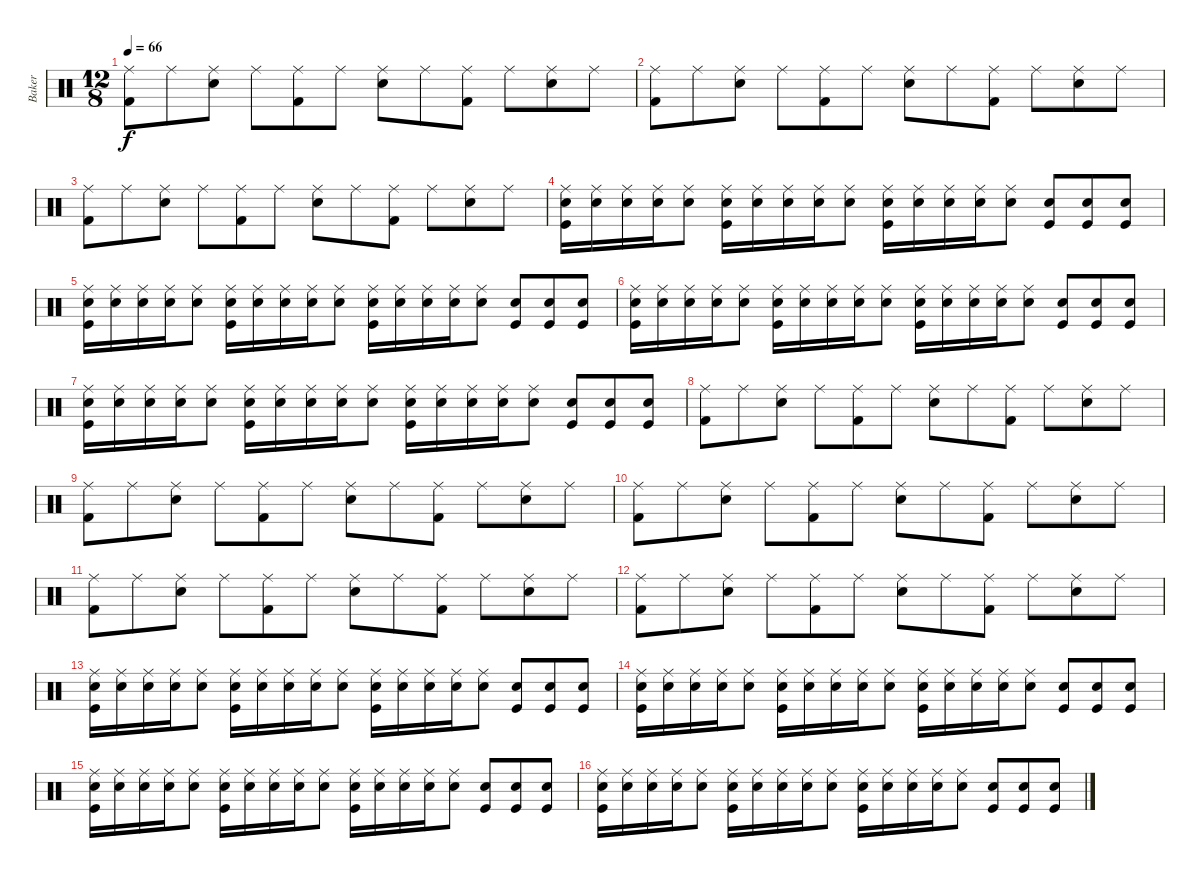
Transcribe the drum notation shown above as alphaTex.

\track ("Baker" "Baker") {instrument percussion}
\staff {score}
\articulation defaults
\ts (12 8)
\tempo 66
\clef neutral
\ks c
("Kick (hit) 2" "Ride (middle)").8{dy f} "Ride (middle)".8 ("Electric Snare (hit)" "Ride (middle)").8 "Ride (middle)".8 ("Kick (hit) 2" "Ride (middle)").8 "Ride (middle)".8 ("Electric Snare (hit)" "Ride (middle)").8 "Ride (middle)".8 ("Kick (hit) 2" "Ride (middle)").8 "Ride (middle)".8 ("Electric Snare (hit)" "Ride (middle)").8 "Ride (middle)".8 |
("Kick (hit) 2" "Ride (middle)").8 "Ride (middle)".8 ("Electric Snare (hit)" "Ride (middle)").8 "Ride (middle)".8 ("Kick (hit) 2" "Ride (middle)").8 "Ride (middle)".8 ("Electric Snare (hit)" "Ride (middle)").8 "Ride (middle)".8 ("Kick (hit) 2" "Ride (middle)").8 "Ride (middle)".8 ("Electric Snare (hit)" "Ride (middle)").8 "Ride (middle)".8 |
("Kick (hit) 2" "Ride (middle)").8 "Ride (middle)".8 ("Electric Snare (hit)" "Ride (middle)").8 "Ride (middle)".8 ("Kick (hit) 2" "Ride (middle)").8 "Ride (middle)".8 ("Electric Snare (hit)" "Ride (middle)").8 "Ride (middle)".8 ("Kick (hit) 2" "Ride (middle)").8 "Ride (middle)".8 ("Electric Snare (hit)" "Ride (middle)").8 "Ride (middle)".8 |
("Electric Snare (hit)" "Kick (hit)" "Ride (middle)").16 ("Electric Snare (hit)" "Ride (middle)").16 ("Electric Snare (hit)" "Ride (middle)").16 ("Electric Snare (hit)" "Ride (middle)").16 ("Electric Snare (hit)" "Ride (middle)").8 ("Electric Snare (hit)" "Kick (hit)" "Ride (middle)").16 ("Electric Snare (hit)" "Ride (middle)").16 ("Electric Snare (hit)" "Ride (middle)").16 ("Electric Snare (hit)" "Ride (middle)").16 ("Electric Snare (hit)" "Ride (middle)").8 ("Electric Snare (hit)" "Kick (hit)" "Ride (middle)").16 ("Electric Snare (hit)" "Ride (middle)").16 ("Electric Snare (hit)" "Ride (middle)").16 ("Electric Snare (hit)" "Ride (middle)").16 ("Electric Snare (hit)" "Ride (middle)").8 ("Electric Snare (hit)" "Kick (hit)").8 ("Electric Snare (hit)" "Kick (hit)").8 ("Electric Snare (hit)" "Kick (hit)").8 |
("Electric Snare (hit)" "Kick (hit)" "Ride (middle)").16 ("Electric Snare (hit)" "Ride (middle)").16 ("Electric Snare (hit)" "Ride (middle)").16 ("Electric Snare (hit)" "Ride (middle)").16 ("Electric Snare (hit)" "Ride (middle)").8 ("Electric Snare (hit)" "Kick (hit)" "Ride (middle)").16 ("Electric Snare (hit)" "Ride (middle)").16 ("Electric Snare (hit)" "Ride (middle)").16 ("Electric Snare (hit)" "Ride (middle)").16 ("Electric Snare (hit)" "Ride (middle)").8 ("Electric Snare (hit)" "Kick (hit)" "Ride (middle)").16 ("Electric Snare (hit)" "Ride (middle)").16 ("Electric Snare (hit)" "Ride (middle)").16 ("Electric Snare (hit)" "Ride (middle)").16 ("Electric Snare (hit)" "Ride (middle)").8 ("Electric Snare (hit)" "Kick (hit)").8 ("Electric Snare (hit)" "Kick (hit)").8 ("Electric Snare (hit)" "Kick (hit)").8 |
("Electric Snare (hit)" "Kick (hit)" "Ride (middle)").16 ("Electric Snare (hit)" "Ride (middle)").16 ("Electric Snare (hit)" "Ride (middle)").16 ("Electric Snare (hit)" "Ride (middle)").16 ("Electric Snare (hit)" "Ride (middle)").8 ("Electric Snare (hit)" "Kick (hit)" "Ride (middle)").16 ("Electric Snare (hit)" "Ride (middle)").16 ("Electric Snare (hit)" "Ride (middle)").16 ("Electric Snare (hit)" "Ride (middle)").16 ("Electric Snare (hit)" "Ride (middle)").8 ("Electric Snare (hit)" "Kick (hit)" "Ride (middle)").16 ("Electric Snare (hit)" "Ride (middle)").16 ("Electric Snare (hit)" "Ride (middle)").16 ("Electric Snare (hit)" "Ride (middle)").16 ("Electric Snare (hit)" "Ride (middle)").8 ("Electric Snare (hit)" "Kick (hit)").8 ("Electric Snare (hit)" "Kick (hit)").8 ("Electric Snare (hit)" "Kick (hit)").8 |
("Electric Snare (hit)" "Kick (hit)" "Ride (middle)").16 ("Electric Snare (hit)" "Ride (middle)").16 ("Electric Snare (hit)" "Ride (middle)").16 ("Electric Snare (hit)" "Ride (middle)").16 ("Electric Snare (hit)" "Ride (middle)").8 ("Electric Snare (hit)" "Kick (hit)" "Ride (middle)").16 ("Electric Snare (hit)" "Ride (middle)").16 ("Electric Snare (hit)" "Ride (middle)").16 ("Electric Snare (hit)" "Ride (middle)").16 ("Electric Snare (hit)" "Ride (middle)").8 ("Electric Snare (hit)" "Kick (hit)" "Ride (middle)").16 ("Electric Snare (hit)" "Ride (middle)").16 ("Electric Snare (hit)" "Ride (middle)").16 ("Electric Snare (hit)" "Ride (middle)").16 ("Electric Snare (hit)" "Ride (middle)").8 ("Electric Snare (hit)" "Kick (hit)").8 ("Electric Snare (hit)" "Kick (hit)").8 ("Electric Snare (hit)" "Kick (hit)").8 |
("Kick (hit) 2" "Ride (middle)").8 "Ride (middle)".8 ("Electric Snare (hit)" "Ride (middle)").8 "Ride (middle)".8 ("Kick (hit) 2" "Ride (middle)").8 "Ride (middle)".8 ("Electric Snare (hit)" "Ride (middle)").8 "Ride (middle)".8 ("Kick (hit) 2" "Ride (middle)").8 "Ride (middle)".8 ("Electric Snare (hit)" "Ride (middle)").8 "Ride (middle)".8 |
("Kick (hit) 2" "Ride (middle)").8 "Ride (middle)".8 ("Electric Snare (hit)" "Ride (middle)").8 "Ride (middle)".8 ("Kick (hit) 2" "Ride (middle)").8 "Ride (middle)".8 ("Electric Snare (hit)" "Ride (middle)").8 "Ride (middle)".8 ("Kick (hit) 2" "Ride (middle)").8 "Ride (middle)".8 ("Electric Snare (hit)" "Ride (middle)").8 "Ride (middle)".8 |
("Kick (hit) 2" "Ride (middle)").8 "Ride (middle)".8 ("Electric Snare (hit)" "Ride (middle)").8 "Ride (middle)".8 ("Kick (hit) 2" "Ride (middle)").8 "Ride (middle)".8 ("Electric Snare (hit)" "Ride (middle)").8 "Ride (middle)".8 ("Kick (hit) 2" "Ride (middle)").8 "Ride (middle)".8 ("Electric Snare (hit)" "Ride (middle)").8 "Ride (middle)".8 |
("Kick (hit) 2" "Ride (middle)").8 "Ride (middle)".8 ("Electric Snare (hit)" "Ride (middle)").8 "Ride (middle)".8 ("Kick (hit) 2" "Ride (middle)").8 "Ride (middle)".8 ("Electric Snare (hit)" "Ride (middle)").8 "Ride (middle)".8 ("Kick (hit) 2" "Ride (middle)").8 "Ride (middle)".8 ("Electric Snare (hit)" "Ride (middle)").8 "Ride (middle)".8 |
("Kick (hit) 2" "Ride (middle)").8 "Ride (middle)".8 ("Electric Snare (hit)" "Ride (middle)").8 "Ride (middle)".8 ("Kick (hit) 2" "Ride (middle)").8 "Ride (middle)".8 ("Electric Snare (hit)" "Ride (middle)").8 "Ride (middle)".8 ("Kick (hit) 2" "Ride (middle)").8 "Ride (middle)".8 ("Electric Snare (hit)" "Ride (middle)").8 "Ride (middle)".8 |
("Electric Snare (hit)" "Kick (hit)" "Ride (middle)").16 ("Electric Snare (hit)" "Ride (middle)").16 ("Electric Snare (hit)" "Ride (middle)").16 ("Electric Snare (hit)" "Ride (middle)").16 ("Electric Snare (hit)" "Ride (middle)").8 ("Electric Snare (hit)" "Kick (hit)" "Ride (middle)").16 ("Electric Snare (hit)" "Ride (middle)").16 ("Electric Snare (hit)" "Ride (middle)").16 ("Electric Snare (hit)" "Ride (middle)").16 ("Electric Snare (hit)" "Ride (middle)").8 ("Electric Snare (hit)" "Kick (hit)" "Ride (middle)").16 ("Electric Snare (hit)" "Ride (middle)").16 ("Electric Snare (hit)" "Ride (middle)").16 ("Electric Snare (hit)" "Ride (middle)").16 ("Electric Snare (hit)" "Ride (middle)").8 ("Electric Snare (hit)" "Kick (hit)").8 ("Electric Snare (hit)" "Kick (hit)").8 ("Electric Snare (hit)" "Kick (hit)").8 |
("Electric Snare (hit)" "Kick (hit)" "Ride (middle)").16 ("Electric Snare (hit)" "Ride (middle)").16 ("Electric Snare (hit)" "Ride (middle)").16 ("Electric Snare (hit)" "Ride (middle)").16 ("Electric Snare (hit)" "Ride (middle)").8 ("Electric Snare (hit)" "Kick (hit)" "Ride (middle)").16 ("Electric Snare (hit)" "Ride (middle)").16 ("Electric Snare (hit)" "Ride (middle)").16 ("Electric Snare (hit)" "Ride (middle)").16 ("Electric Snare (hit)" "Ride (middle)").8 ("Electric Snare (hit)" "Kick (hit)" "Ride (middle)").16 ("Electric Snare (hit)" "Ride (middle)").16 ("Electric Snare (hit)" "Ride (middle)").16 ("Electric Snare (hit)" "Ride (middle)").16 ("Electric Snare (hit)" "Ride (middle)").8 ("Electric Snare (hit)" "Kick (hit)").8 ("Electric Snare (hit)" "Kick (hit)").8 ("Electric Snare (hit)" "Kick (hit)").8 |
("Electric Snare (hit)" "Kick (hit)" "Ride (middle)").16 ("Electric Snare (hit)" "Ride (middle)").16 ("Electric Snare (hit)" "Ride (middle)").16 ("Electric Snare (hit)" "Ride (middle)").16 ("Electric Snare (hit)" "Ride (middle)").8 ("Electric Snare (hit)" "Kick (hit)" "Ride (middle)").16 ("Electric Snare (hit)" "Ride (middle)").16 ("Electric Snare (hit)" "Ride (middle)").16 ("Electric Snare (hit)" "Ride (middle)").16 ("Electric Snare (hit)" "Ride (middle)").8 ("Electric Snare (hit)" "Kick (hit)" "Ride (middle)").16 ("Electric Snare (hit)" "Ride (middle)").16 ("Electric Snare (hit)" "Ride (middle)").16 ("Electric Snare (hit)" "Ride (middle)").16 ("Electric Snare (hit)" "Ride (middle)").8 ("Electric Snare (hit)" "Kick (hit)").8 ("Electric Snare (hit)" "Kick (hit)").8 ("Electric Snare (hit)" "Kick (hit)").8 |
("Electric Snare (hit)" "Kick (hit)" "Ride (middle)").16 ("Electric Snare (hit)" "Ride (middle)").16 ("Electric Snare (hit)" "Ride (middle)").16 ("Electric Snare (hit)" "Ride (middle)").16 ("Electric Snare (hit)" "Ride (middle)").8 ("Electric Snare (hit)" "Kick (hit)" "Ride (middle)").16 ("Electric Snare (hit)" "Ride (middle)").16 ("Electric Snare (hit)" "Ride (middle)").16 ("Electric Snare (hit)" "Ride (middle)").16 ("Electric Snare (hit)" "Ride (middle)").8 ("Electric Snare (hit)" "Kick (hit)" "Ride (middle)").16 ("Electric Snare (hit)" "Ride (middle)").16 ("Electric Snare (hit)" "Ride (middle)").16 ("Electric Snare (hit)" "Ride (middle)").16 ("Electric Snare (hit)" "Ride (middle)").8 ("Electric Snare (hit)" "Kick (hit)").8 ("Electric Snare (hit)" "Kick (hit)").8 ("Electric Snare (hit)" "Kick (hit)").8
